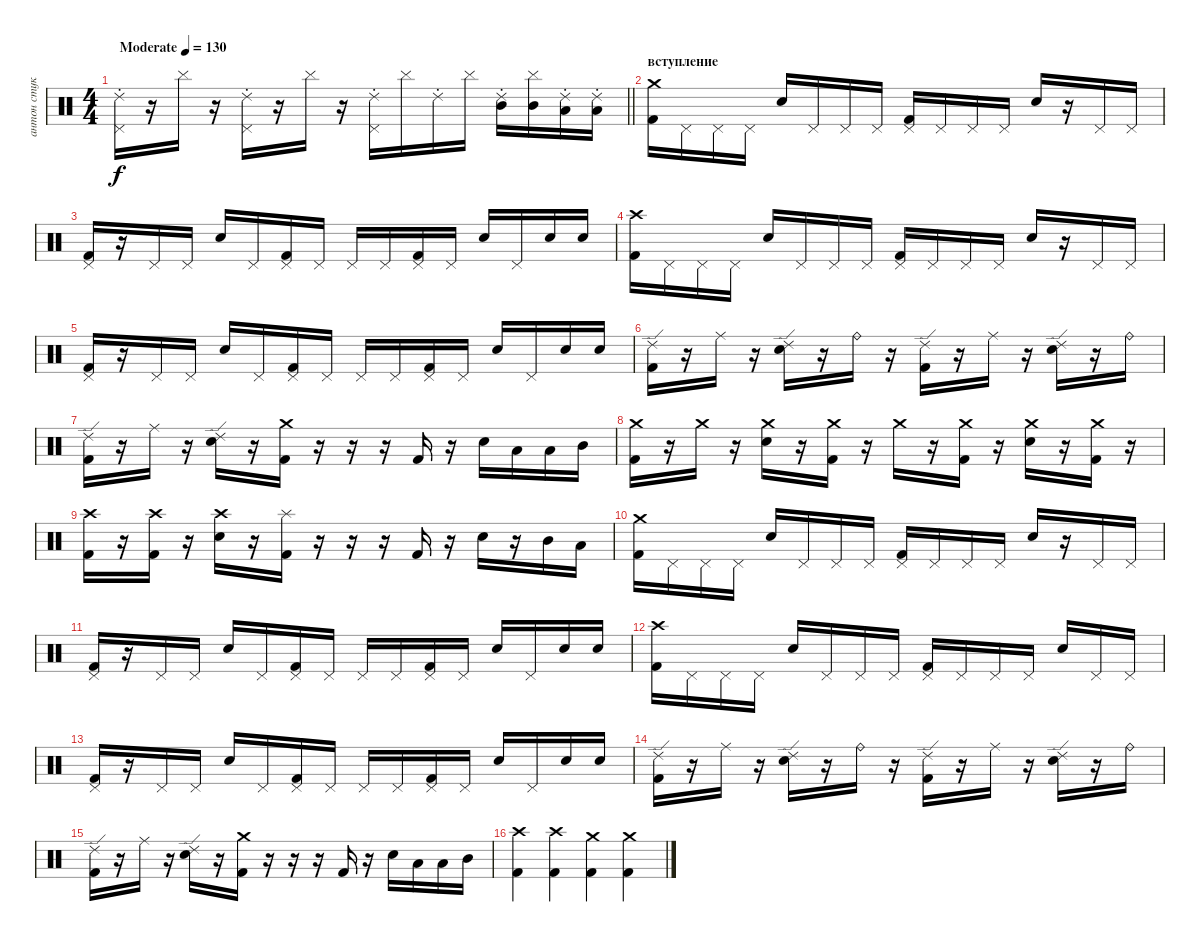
\track ("антон стукачь" "антон стук") {instrument percussion}
\staff {score}
\articulation defaults
\ts (4 4)
\tempo (130 "Moderate")
\clef neutral
\barLineRight lightlight
\ks c
("Pedal Hi-Hat (hit)" "Ride (choke) 2").16{dy f} r.16 "Cymbal (hit)".16 r.16 ("Pedal Hi-Hat (hit)" "Ride (choke) 2").16 r.16 "Cymbal (hit)".16 r.16 ("Pedal Hi-Hat (hit)" "Ride (choke) 2").16 "Cymbal (hit)".16 "Ride (choke) 2".16 "Cymbal (hit)".16 ("Mid Tom (hit)" "Ride (choke) 2").16 ("Mid Tom (hit)" "Cymbal (hit)").16 ("Low Tom (hit)" "Ride (choke) 2").16 ("Low Tom (hit)" "Ride (choke) 2").16 |
\section ("" "вступление")
("Crash medium (hit)" "Kick (hit) 2").16 "Pedal Hi-Hat (hit)".16 "Pedal Hi-Hat (hit)".16 "Pedal Hi-Hat (hit)".16 "Electric Snare (hit)".16 "Pedal Hi-Hat (hit)".16 "Pedal Hi-Hat (hit)".16 "Pedal Hi-Hat (hit)".16 ("Pedal Hi-Hat (hit)" "Kick (hit) 2").16 "Pedal Hi-Hat (hit)".16 "Pedal Hi-Hat (hit)".16 "Pedal Hi-Hat (hit)".16 "Electric Snare (hit)".16 r.16 "Pedal Hi-Hat (hit)".16 "Pedal Hi-Hat (hit)".16 |
("Pedal Hi-Hat (hit)" "Kick (hit) 2").16 r.16 "Pedal Hi-Hat (hit)".16 "Pedal Hi-Hat (hit)".16 "Electric Snare (hit)".16 "Pedal Hi-Hat (hit)".16 ("Pedal Hi-Hat (hit)" "Kick (hit) 2").16 "Pedal Hi-Hat (hit)".16 "Pedal Hi-Hat (hit)".16 "Pedal Hi-Hat (hit)".16 ("Pedal Hi-Hat (hit)" "Kick (hit) 2").16 "Pedal Hi-Hat (hit)".16 "Electric Snare (hit)".16 "Pedal Hi-Hat (hit)".16 "Electric Snare (hit)".16 "Electric Snare (hit)".16 |
("Crash high (hit)" "Kick (hit) 2").16 "Pedal Hi-Hat (hit)".16 "Pedal Hi-Hat (hit)".16 "Pedal Hi-Hat (hit)".16 "Electric Snare (hit)".16 "Pedal Hi-Hat (hit)".16 "Pedal Hi-Hat (hit)".16 "Pedal Hi-Hat (hit)".16 ("Pedal Hi-Hat (hit)" "Kick (hit) 2").16 "Pedal Hi-Hat (hit)".16 "Pedal Hi-Hat (hit)".16 "Pedal Hi-Hat (hit)".16 "Electric Snare (hit)".16 r.16 "Pedal Hi-Hat (hit)".16 "Pedal Hi-Hat (hit)".16 |
("Pedal Hi-Hat (hit)" "Kick (hit) 2").16 r.16 "Pedal Hi-Hat (hit)".16 "Pedal Hi-Hat (hit)".16 "Electric Snare (hit)".16 "Pedal Hi-Hat (hit)".16 ("Pedal Hi-Hat (hit)" "Kick (hit) 2").16 "Pedal Hi-Hat (hit)".16 "Pedal Hi-Hat (hit)".16 "Pedal Hi-Hat (hit)".16 ("Pedal Hi-Hat (hit)" "Kick (hit) 2").16 "Pedal Hi-Hat (hit)".16 "Electric Snare (hit)".16 "Pedal Hi-Hat (hit)".16 "Electric Snare (hit)".16 "Electric Snare (hit)".16 |
("Ride (edge) 2" "Kick (hit) 2").16 r.16 "Ride (middle)".16 r.16 ("Ride (edge) 2" "Electric Snare (hit)").16 r.16 "Ride (bell)".16 r.16 ("Ride (edge) 2" "Kick (hit) 2").16 r.16 "Ride (middle)".16 r.16 ("Ride (edge) 2" "Electric Snare (hit)").16 r.16 "Ride (bell)".16 |
("Ride (edge) 2" "Kick (hit) 2").16 r.16 "Ride (middle)".16 r.16 ("Ride (edge) 2" "Electric Snare (hit)").16 r.16 ("Crash medium (hit)" "Kick (hit) 2").16 r.16 r.16 r.16 "Kick (hit) 2".16 r.16 "Electric Snare (hit)".16 "Low Tom (hit)".16 "Low Tom (hit)".16 "Mid Tom (hit)".16 |
("Crash medium (hit)" "Kick (hit) 2").16 r.16 "Crash medium (hit)".16 r.16 ("Crash medium (hit)" "Electric Snare (hit)").16 r.16 ("Crash medium (hit)" "Kick (hit) 2").16 r.16 "Crash medium (hit)".16 r.16 ("Crash medium (hit)" "Kick (hit) 2").16 r.16 ("Crash medium (hit)" "Electric Snare (hit)").16 r.16 ("Crash medium (hit)" "Kick (hit) 2").16 r.16 |
("Crash high (hit)" "Kick (hit) 2").16 r.16 ("Crash high (hit)" "Kick (hit) 2").16 r.16 ("Crash high (hit)" "Electric Snare (hit)").16 r.16 ("Splash (hit)" "Kick (hit) 2").16 r.16 r.16 r.16 "Kick (hit) 2".16 r.16 "Electric Snare (hit)".16 r.16 "Mid Tom (hit)".16 "Low Tom (hit)".16 |
("Crash medium (hit)" "Kick (hit) 2").16 "Pedal Hi-Hat (hit)".16 "Pedal Hi-Hat (hit)".16 "Pedal Hi-Hat (hit)".16 "Electric Snare (hit)".16 "Pedal Hi-Hat (hit)".16 "Pedal Hi-Hat (hit)".16 "Pedal Hi-Hat (hit)".16 ("Pedal Hi-Hat (hit)" "Kick (hit) 2").16 "Pedal Hi-Hat (hit)".16 "Pedal Hi-Hat (hit)".16 "Pedal Hi-Hat (hit)".16 "Electric Snare (hit)".16 r.16 "Pedal Hi-Hat (hit)".16 "Pedal Hi-Hat (hit)".16 |
("Pedal Hi-Hat (hit)" "Kick (hit) 2").16 r.16 "Pedal Hi-Hat (hit)".16 "Pedal Hi-Hat (hit)".16 "Electric Snare (hit)".16 "Pedal Hi-Hat (hit)".16 ("Pedal Hi-Hat (hit)" "Kick (hit) 2").16 "Pedal Hi-Hat (hit)".16 "Pedal Hi-Hat (hit)".16 "Pedal Hi-Hat (hit)".16 ("Pedal Hi-Hat (hit)" "Kick (hit) 2").16 "Pedal Hi-Hat (hit)".16 "Electric Snare (hit)".16 "Pedal Hi-Hat (hit)".16 "Electric Snare (hit)".16 "Electric Snare (hit)".16 |
("Crash high (hit)" "Kick (hit) 2").16 "Pedal Hi-Hat (hit)".16 "Pedal Hi-Hat (hit)".16 "Pedal Hi-Hat (hit)".16 "Electric Snare (hit)".16 "Pedal Hi-Hat (hit)".16 "Pedal Hi-Hat (hit)".16 "Pedal Hi-Hat (hit)".16 ("Pedal Hi-Hat (hit)" "Kick (hit) 2").16 "Pedal Hi-Hat (hit)".16 "Pedal Hi-Hat (hit)".16 "Pedal Hi-Hat (hit)".16 "Electric Snare (hit)".16 "Pedal Hi-Hat (hit)".16 "Pedal Hi-Hat (hit)".16 |
("Pedal Hi-Hat (hit)" "Kick (hit) 2").16 r.16 "Pedal Hi-Hat (hit)".16 "Pedal Hi-Hat (hit)".16 "Electric Snare (hit)".16 "Pedal Hi-Hat (hit)".16 ("Pedal Hi-Hat (hit)" "Kick (hit) 2").16 "Pedal Hi-Hat (hit)".16 "Pedal Hi-Hat (hit)".16 "Pedal Hi-Hat (hit)".16 ("Pedal Hi-Hat (hit)" "Kick (hit) 2").16 "Pedal Hi-Hat (hit)".16 "Electric Snare (hit)".16 "Pedal Hi-Hat (hit)".16 "Electric Snare (hit)".16 "Electric Snare (hit)".16 |
("Ride (edge) 2" "Kick (hit) 2").16 r.16 "Ride (middle)".16 r.16 ("Ride (edge) 2" "Electric Snare (hit)").16 r.16 "Ride (bell)".16 r.16 ("Ride (edge) 2" "Kick (hit) 2").16 r.16 "Ride (middle)".16 r.16 ("Ride (edge) 2" "Electric Snare (hit)").16 r.16 "Ride (bell)".16 |
("Ride (edge) 2" "Kick (hit) 2").16 r.16 "Ride (middle)".16 r.16 ("Ride (edge) 2" "Electric Snare (hit)").16 r.16 ("Crash medium (hit)" "Kick (hit) 2").16 r.16 r.16 r.16 "Kick (hit) 2".16 r.16 "Electric Snare (hit)".16 "Low Tom (hit)".16 "Low Tom (hit)".16 "Mid Tom (hit)".16 |
("Crash high (hit)" "Kick (hit) 2").4 ("Crash high (hit)" "Kick (hit) 2").4 ("Crash medium (hit)" "Kick (hit) 2").4 ("Crash medium (hit)" "Kick (hit) 2").4
